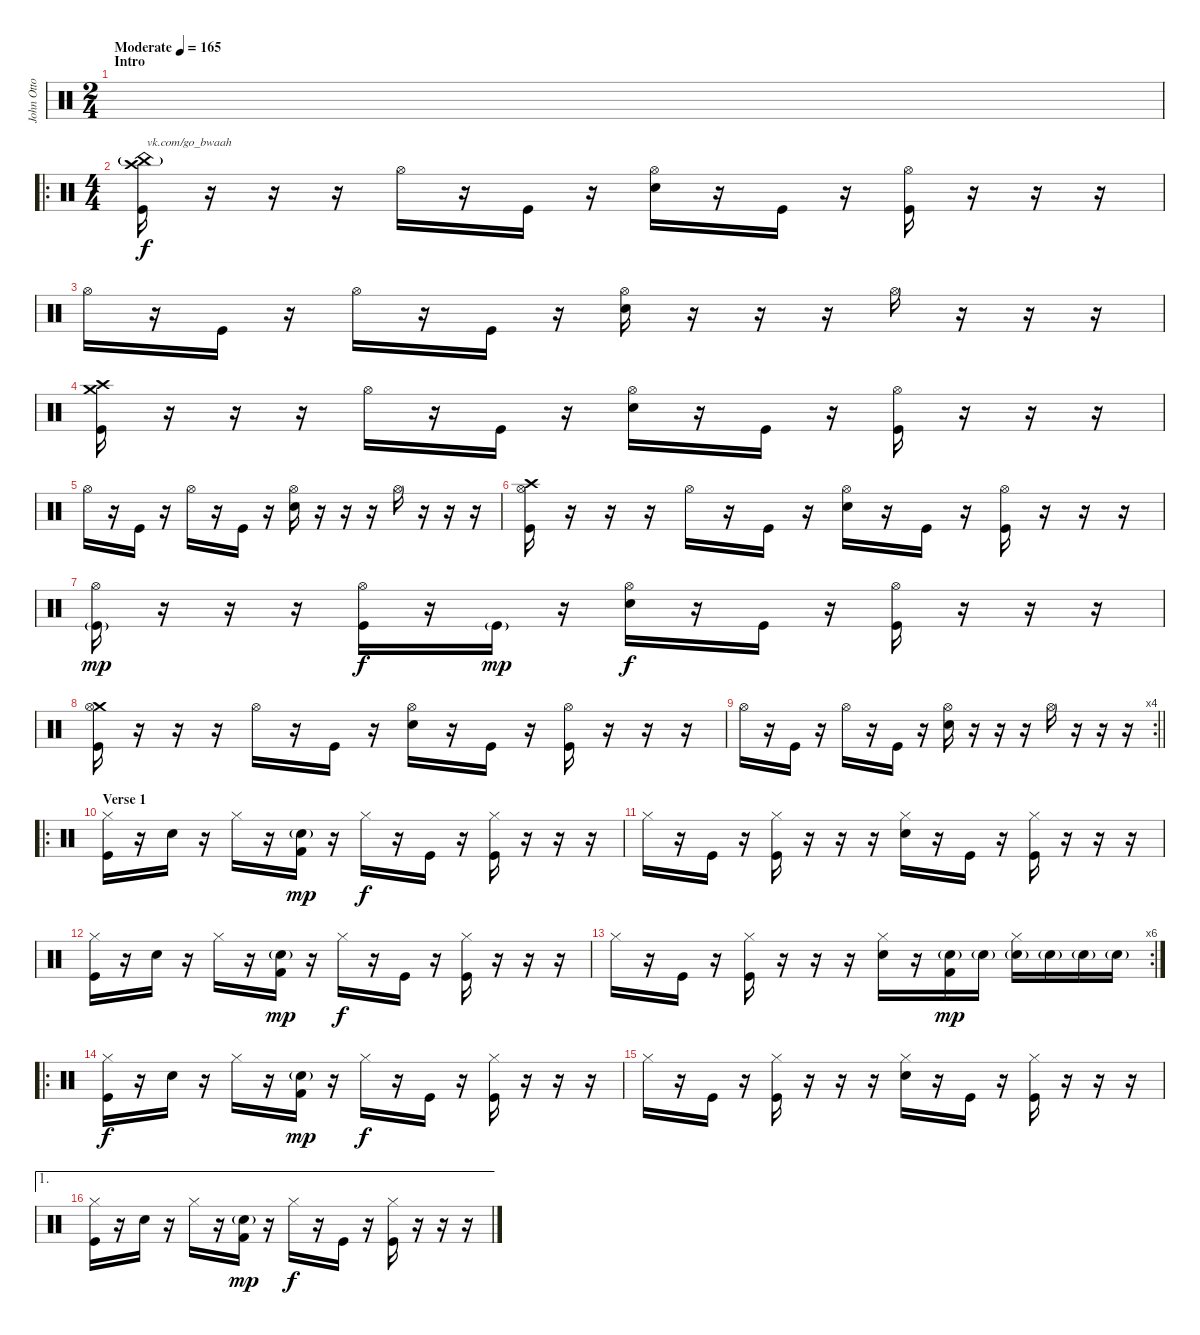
\track ("John Otto" "John Otto") {instrument percussion}
\staff {score}
\articulation defaults
\ts (2 4)
\section ("" "Intro")
\tempo (165 "Moderate")
\clef neutral
\ks c
|
\ro
\ts (4 4)
("Crash high (hit)" "China (hit)"{g} "Kick (hit)").16{txt "vk.com/go_bwaah"} r.16 r.16 r.16 "Hi-Hat (open)".16{dy f} r.16 "Kick (hit)".16 r.16 ("Hi-Hat (open)" "Electric Snare (hit)").16 r.16 "Kick (hit)".16 r.16 ("Hi-Hat (open)" "Kick (hit)").16 r.16 r.16 r.16 |
"Hi-Hat (open)".16 r.16 "Kick (hit)".16 r.16 "Hi-Hat (open)".16 r.16 "Kick (hit)".16 r.16 ("Hi-Hat (open)" "Electric Snare (hit)").16 r.16 r.16 r.16 "Hi-Hat (open)".16 r.16 r.16 r.16 |
("Crash high (hit)" "Crash medium (hit)" "Kick (hit)").16 r.16 r.16 r.16 "Hi-Hat (open)".16 r.16 "Kick (hit)".16 r.16 ("Hi-Hat (open)" "Electric Snare (hit)").16 r.16 "Kick (hit)".16 r.16 ("Hi-Hat (open)" "Kick (hit)").16 r.16 r.16 r.16 |
"Hi-Hat (open)".16 r.16 "Kick (hit)".16 r.16 "Hi-Hat (open)".16 r.16 "Kick (hit)".16 r.16 ("Hi-Hat (open)" "Electric Snare (hit)").16 r.16 r.16 r.16 "Hi-Hat (open)".16 r.16 r.16 r.16 |
("Crash high (hit)" "Hi-Hat (open)" "Kick (hit)").16 r.16 r.16 r.16 "Hi-Hat (open)".16 r.16 "Kick (hit)".16 r.16 ("Hi-Hat (open)" "Electric Snare (hit)").16 r.16 "Kick (hit)".16 r.16 ("Hi-Hat (open)" "Kick (hit)").16 r.16 r.16 r.16 |
("Hi-Hat (open)" "Kick (hit)"{g}).16{dy mp} r.16 r.16 r.16 ("Hi-Hat (open)" "Kick (hit)").16{dy f} r.16 "Kick (hit)"{g}.16{dy mp} r.16 ("Hi-Hat (open)" "Electric Snare (hit)").16{dy f} r.16 "Kick (hit)".16 r.16 ("Hi-Hat (open)" "Kick (hit)").16 r.16 r.16 r.16 |
("Crash medium (hit)" "Hi-Hat (open)" "Kick (hit)").16 r.16 r.16 r.16 "Hi-Hat (open)".16 r.16 "Kick (hit)".16 r.16 ("Hi-Hat (open)" "Electric Snare (hit)").16 r.16 "Kick (hit)".16 r.16 ("Hi-Hat (open)" "Kick (hit)").16 r.16 r.16 r.16 |
\rc 4
\barLineRight lightlight "Hi-Hat (open)".16
r.16 "Kick (hit)".16 r.16 "Hi-Hat (open)".16 r.16 "Kick (hit)".16 r.16 ("Hi-Hat (open)" "Electric Snare (hit)").16 r.16 r.16 r.16 "Hi-Hat (open)".16 r.16 r.16 r.16 |
\ro
\section ("" "Verse 1")
("Hi-Hat (closed)" "Kick (hit)").16 r.16 "Electric Snare (hit)".16 r.16 "Hi-Hat (closed)".16 r.16 ("Electric Snare (hit)"{g} "Kick (hit) 2").16{dy mp} r.16 "Hi-Hat (closed)".16{dy f} r.16 "Kick (hit)".16 r.16 ("Hi-Hat (closed)" "Kick (hit)").16 r.16 r.16 r.16 |
"Hi-Hat (closed)".16 r.16 "Kick (hit)".16 r.16 ("Hi-Hat (closed)" "Kick (hit)").16 r.16 r.16 r.16 ("Hi-Hat (closed)" "Electric Snare (hit)").16 r.16 "Kick (hit)".16 r.16 ("Hi-Hat (closed)" "Kick (hit)").16 r.16 r.16 r.16 |
("Hi-Hat (closed)" "Kick (hit)").16 r.16 "Electric Snare (hit)".16 r.16 "Hi-Hat (closed)".16 r.16 ("Electric Snare (hit)"{g} "Kick (hit) 2").16{dy mp} r.16 "Hi-Hat (closed)".16{dy f} r.16 "Kick (hit)".16 r.16 ("Hi-Hat (closed)" "Kick (hit)").16 r.16 r.16 r.16 |
\rc 6 "Hi-Hat (closed)".16
r.16 "Kick (hit)".16 r.16 ("Hi-Hat (closed)" "Kick (hit)").16 r.16 r.16 r.16 ("Hi-Hat (closed)" "Electric Snare (hit)").16 r.16 ("Electric Snare (hit)"{g} "Kick (hit) 2").16{dy mp} "Electric Snare (hit)"{g}.16 ("Hi-Hat (closed)" "Electric Snare (hit)"{g}).16 "Electric Snare (hit)"{g}.16 "Electric Snare (hit)"{g}.16 "Electric Snare (hit)"{g}.16 |
\ro
("Hi-Hat (closed)" "Kick (hit)").16{dy f} r.16 "Electric Snare (hit)".16 r.16 "Hi-Hat (closed)".16 r.16 ("Electric Snare (hit)"{g} "Kick (hit) 2").16{dy mp} r.16 "Hi-Hat (closed)".16{dy f} r.16 "Kick (hit)".16 r.16 ("Hi-Hat (closed)" "Kick (hit)").16 r.16 r.16 r.16 |
"Hi-Hat (closed)".16 r.16 "Kick (hit)".16 r.16 ("Hi-Hat (closed)" "Kick (hit)").16 r.16 r.16 r.16 ("Hi-Hat (closed)" "Electric Snare (hit)").16 r.16 "Kick (hit)".16 r.16 ("Hi-Hat (closed)" "Kick (hit)").16 r.16 r.16 r.16 |
\ae 1
("Hi-Hat (closed)" "Kick (hit)").16 r.16 "Electric Snare (hit)".16 r.16 "Hi-Hat (closed)".16 r.16 ("Electric Snare (hit)"{g} "Kick (hit) 2").16{dy mp} r.16 "Hi-Hat (closed)".16{dy f} r.16 "Kick (hit)".16 r.16 ("Hi-Hat (closed)" "Kick (hit)").16 r.16 r.16 r.16
